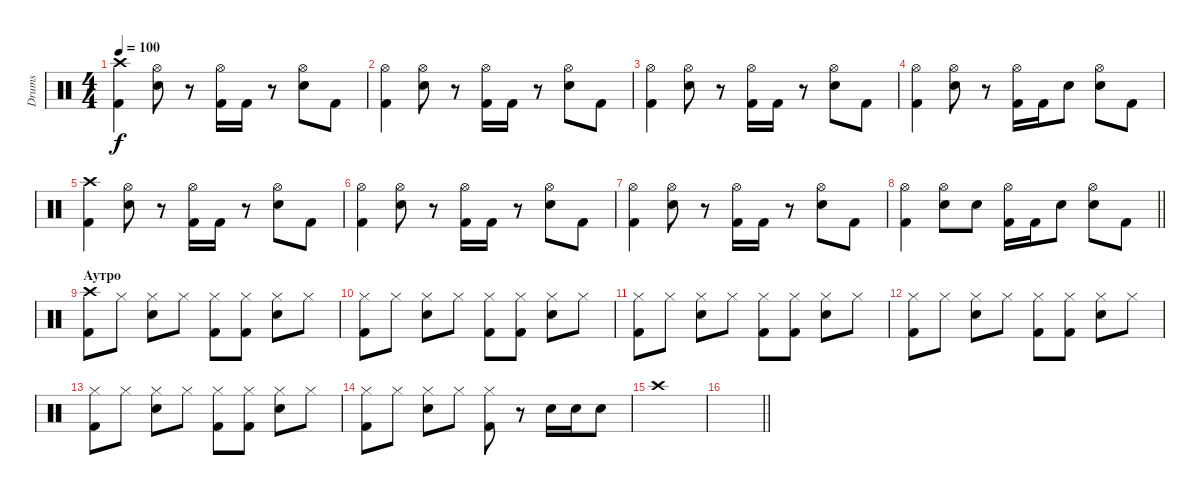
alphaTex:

\track ("Drums" "Drums") {instrument percussion}
\staff {score}
\articulation defaults
\ts (4 4)
\tempo 100
\clef neutral
\ks c
("Crash high (hit)" "Kick (hit) 2").4{dy f} ("Hi-Hat (open)" "Snare (hit) 2").8 r.8 ("Hi-Hat (open)" "Kick (hit) 2").16 "Kick (hit) 2".16 r.8 ("Hi-Hat (open)" "Snare (hit) 2").8 "Kick (hit) 2".8 |
("Hi-Hat (open)" "Kick (hit) 2").4 ("Hi-Hat (open)" "Snare (hit) 2").8 r.8 ("Hi-Hat (open)" "Kick (hit) 2").16 "Kick (hit) 2".16 r.8 ("Hi-Hat (open)" "Snare (hit) 2").8 "Kick (hit) 2".8 |
("Hi-Hat (open)" "Kick (hit) 2").4 ("Hi-Hat (open)" "Snare (hit) 2").8 r.8 ("Hi-Hat (open)" "Kick (hit) 2").16 "Kick (hit) 2".16 r.8 ("Hi-Hat (open)" "Snare (hit) 2").8 "Kick (hit) 2".8 |
("Hi-Hat (open)" "Kick (hit) 2").4 ("Hi-Hat (open)" "Snare (hit) 2").8 r.8 ("Hi-Hat (open)" "Kick (hit) 2").16 "Kick (hit) 2".16 "Snare (hit) 2".8 ("Hi-Hat (open)" "Snare (hit) 2").8 "Kick (hit) 2".8 |
("Crash high (hit)" "Kick (hit) 2").4 ("Hi-Hat (open)" "Snare (hit) 2").8 r.8 ("Hi-Hat (open)" "Kick (hit) 2").16 "Kick (hit) 2".16 r.8 ("Hi-Hat (open)" "Snare (hit) 2").8 "Kick (hit) 2".8 |
("Hi-Hat (open)" "Kick (hit) 2").4 ("Hi-Hat (open)" "Snare (hit) 2").8 r.8 ("Hi-Hat (open)" "Kick (hit) 2").16 "Kick (hit) 2".16 r.8 ("Hi-Hat (open)" "Snare (hit) 2").8 "Kick (hit) 2".8 |
("Hi-Hat (open)" "Kick (hit) 2").4 ("Hi-Hat (open)" "Snare (hit) 2").8 r.8 ("Hi-Hat (open)" "Kick (hit) 2").16 "Kick (hit) 2".16 r.8 ("Hi-Hat (open)" "Snare (hit) 2").8 "Kick (hit) 2".8 |
\barLineRight lightlight
("Hi-Hat (open)" "Kick (hit) 2").4 ("Hi-Hat (open)" "Snare (hit) 2").8 "Snare (hit) 2".8 ("Hi-Hat (open)" "Kick (hit) 2").16 "Kick (hit) 2".16 "Snare (hit) 2".8 ("Hi-Hat (open)" "Snare (hit) 2").8 "Kick (hit) 2".8 |
\section ("" "Аутро")
("Crash high (hit)" "Kick (hit) 2").8 "Hi-Hat (closed)".8 ("Hi-Hat (closed)" "Snare (hit) 2").8 "Hi-Hat (closed)".8 ("Hi-Hat (closed)" "Kick (hit) 2").8 ("Hi-Hat (closed)" "Kick (hit) 2").8 ("Hi-Hat (closed)" "Snare (hit) 2").8 "Hi-Hat (closed)".8 |
("Hi-Hat (closed)" "Kick (hit) 2").8 "Hi-Hat (closed)".8 ("Hi-Hat (closed)" "Snare (hit) 2").8 "Hi-Hat (closed)".8 ("Hi-Hat (closed)" "Kick (hit) 2").8 ("Hi-Hat (closed)" "Kick (hit) 2").8 ("Hi-Hat (closed)" "Snare (hit) 2").8 "Hi-Hat (closed)".8 |
("Hi-Hat (closed)" "Kick (hit) 2").8 "Hi-Hat (closed)".8 ("Hi-Hat (closed)" "Snare (hit) 2").8 "Hi-Hat (closed)".8 ("Hi-Hat (closed)" "Kick (hit) 2").8 ("Hi-Hat (closed)" "Kick (hit) 2").8 ("Hi-Hat (closed)" "Snare (hit) 2").8 "Hi-Hat (closed)".8 |
("Hi-Hat (closed)" "Kick (hit) 2").8 "Hi-Hat (closed)".8 ("Hi-Hat (closed)" "Snare (hit) 2").8 "Hi-Hat (closed)".8 ("Hi-Hat (closed)" "Kick (hit) 2").8 ("Hi-Hat (closed)" "Kick (hit) 2").8 ("Hi-Hat (closed)" "Snare (hit) 2").8 "Hi-Hat (closed)".8 |
("Hi-Hat (closed)" "Kick (hit) 2").8 "Hi-Hat (closed)".8 ("Hi-Hat (closed)" "Snare (hit) 2").8 "Hi-Hat (closed)".8 ("Hi-Hat (closed)" "Kick (hit) 2").8 ("Hi-Hat (closed)" "Kick (hit) 2").8 ("Hi-Hat (closed)" "Snare (hit) 2").8 "Hi-Hat (closed)".8 |
("Hi-Hat (closed)" "Kick (hit) 2").8 "Hi-Hat (closed)".8 ("Hi-Hat (closed)" "Snare (hit) 2").8 "Hi-Hat (closed)".8 ("Hi-Hat (closed)" "Kick (hit) 2").8 r.8 "Snare (hit) 2".16 "Snare (hit) 2".16 "Snare (hit) 2".8 |
"Crash high (hit)".1 |
\barLineRight lightlight
